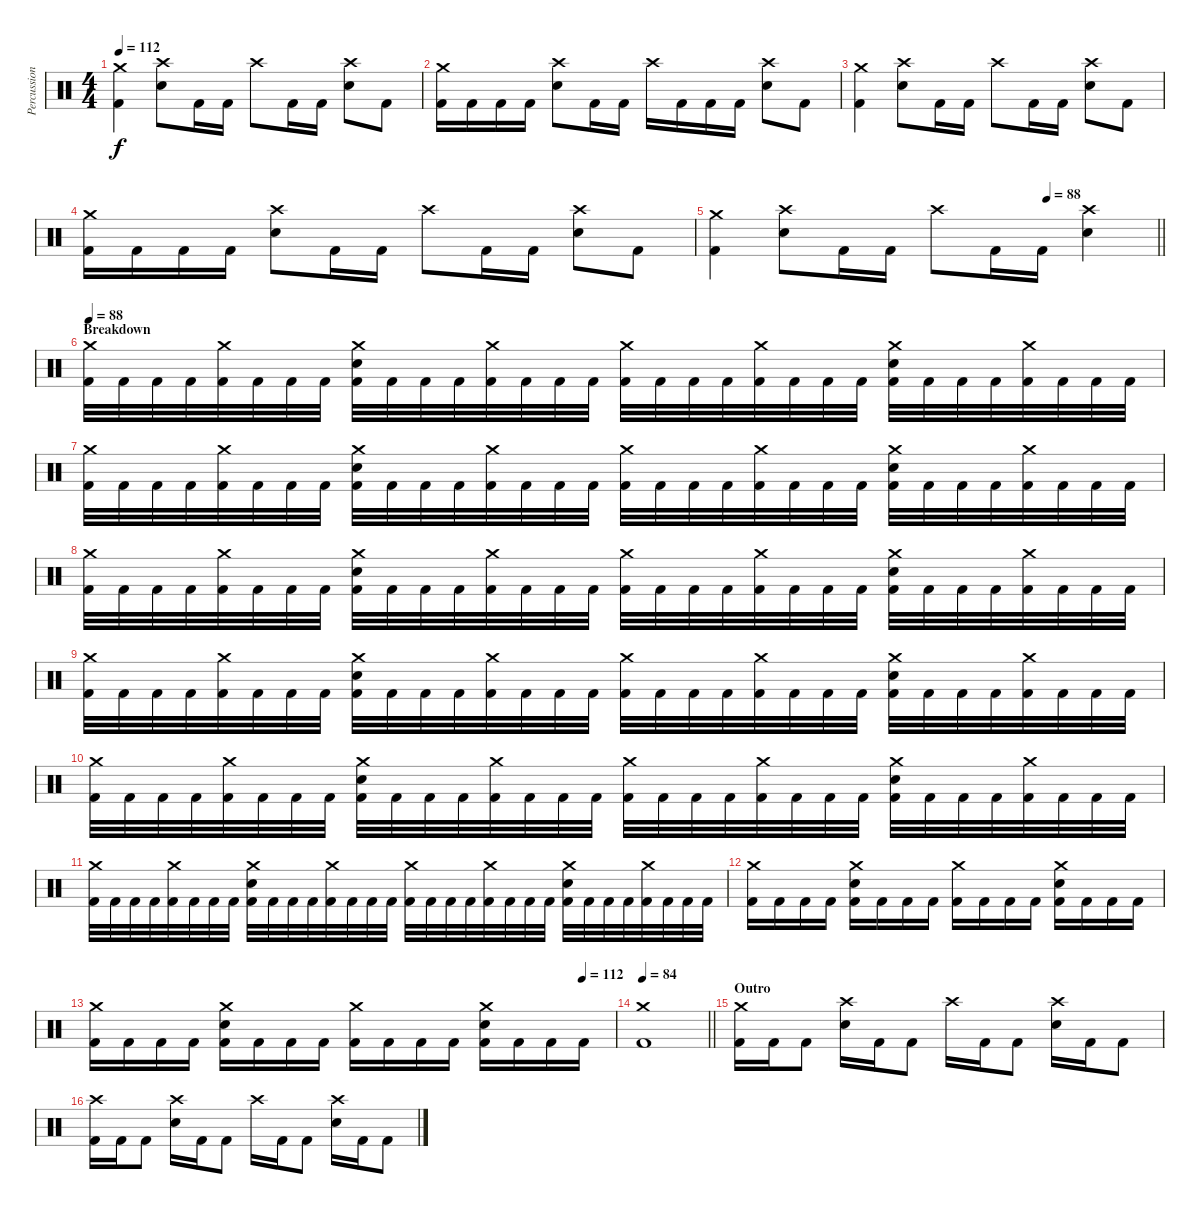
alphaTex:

\track ("Percussion" "Percussion") {instrument percussion}
\staff {score}
\articulation defaults
\ts (4 4)
\tempo 112
\clef neutral
\ks c
("Crash medium (hit)" "Kick (hit) 2").4{dy f} ("Crash high (hit)" "Electric Snare (hit)").8 "Kick (hit) 2".16 "Kick (hit) 2".16 "Crash high (hit)".8 "Kick (hit) 2".16 "Kick (hit) 2".16 ("Crash high (hit)" "Electric Snare (hit)").8 "Kick (hit) 2".8 |
("Crash medium (hit)" "Kick (hit) 2").16 "Kick (hit) 2".16 "Kick (hit) 2".16 "Kick (hit) 2".16 ("Crash high (hit)" "Electric Snare (hit)").8 "Kick (hit) 2".16 "Kick (hit) 2".16 "Crash high (hit)".16 "Kick (hit) 2".16 "Kick (hit) 2".16 "Kick (hit) 2".16 ("Crash high (hit)" "Electric Snare (hit)").8 "Kick (hit) 2".8 |
("Crash medium (hit)" "Kick (hit) 2").4 ("Crash high (hit)" "Electric Snare (hit)").8 "Kick (hit) 2".16 "Kick (hit) 2".16 "Crash high (hit)".8 "Kick (hit) 2".16 "Kick (hit) 2".16 ("Crash high (hit)" "Electric Snare (hit)").8 "Kick (hit) 2".8 |
("Crash medium (hit)" "Kick (hit) 2").16 "Kick (hit) 2".16 "Kick (hit) 2".16 "Kick (hit) 2".16 ("Crash high (hit)" "Electric Snare (hit)").8 "Kick (hit) 2".16 "Kick (hit) 2".16 "Crash high (hit)".8 "Kick (hit) 2".16 "Kick (hit) 2".16 ("Crash high (hit)" "Electric Snare (hit)").8 "Kick (hit) 2".8 |
\tempo (84 0.75)
\tempo (88 0.75)
\barLineRight lightlight
("Crash medium (hit)" "Kick (hit) 2").4 ("Crash high (hit)" "Electric Snare (hit)").8 "Kick (hit) 2".16 "Kick (hit) 2".16 "Crash high (hit)".8 "Kick (hit) 2".16 "Kick (hit) 2".16 ("Crash high (hit)" "Electric Snare (hit)").4 |
\section ("" "Breakdown")
\tempo 88
("Crash medium (hit)" "Kick (hit) 2").32 "Kick (hit) 2".32 "Kick (hit) 2".32 "Kick (hit) 2".32 ("Crash medium (hit)" "Kick (hit) 2").32 "Kick (hit) 2".32 "Kick (hit) 2".32 "Kick (hit) 2".32 ("Crash medium (hit)" "Electric Snare (hit)" "Kick (hit) 2").32 "Kick (hit) 2".32 "Kick (hit) 2".32 "Kick (hit) 2".32 ("Crash medium (hit)" "Kick (hit) 2").32 "Kick (hit) 2".32 "Kick (hit) 2".32 "Kick (hit) 2".32 ("Crash medium (hit)" "Kick (hit) 2").32 "Kick (hit) 2".32 "Kick (hit) 2".32 "Kick (hit) 2".32 ("Crash medium (hit)" "Kick (hit) 2").32 "Kick (hit) 2".32 "Kick (hit) 2".32 "Kick (hit) 2".32 ("Crash medium (hit)" "Electric Snare (hit)" "Kick (hit) 2").32 "Kick (hit) 2".32 "Kick (hit) 2".32 "Kick (hit) 2".32 ("Crash medium (hit)" "Kick (hit) 2").32 "Kick (hit) 2".32 "Kick (hit) 2".32 "Kick (hit) 2".32 |
("Crash medium (hit)" "Kick (hit) 2").32 "Kick (hit) 2".32 "Kick (hit) 2".32 "Kick (hit) 2".32 ("Crash medium (hit)" "Kick (hit) 2").32 "Kick (hit) 2".32 "Kick (hit) 2".32 "Kick (hit) 2".32 ("Crash medium (hit)" "Electric Snare (hit)" "Kick (hit) 2").32 "Kick (hit) 2".32 "Kick (hit) 2".32 "Kick (hit) 2".32 ("Crash medium (hit)" "Kick (hit) 2").32 "Kick (hit) 2".32 "Kick (hit) 2".32 "Kick (hit) 2".32 ("Crash medium (hit)" "Kick (hit) 2").32 "Kick (hit) 2".32 "Kick (hit) 2".32 "Kick (hit) 2".32 ("Crash medium (hit)" "Kick (hit) 2").32 "Kick (hit) 2".32 "Kick (hit) 2".32 "Kick (hit) 2".32 ("Crash medium (hit)" "Electric Snare (hit)" "Kick (hit) 2").32 "Kick (hit) 2".32 "Kick (hit) 2".32 "Kick (hit) 2".32 ("Crash medium (hit)" "Kick (hit) 2").32 "Kick (hit) 2".32 "Kick (hit) 2".32 "Kick (hit) 2".32 |
("Crash medium (hit)" "Kick (hit) 2").32 "Kick (hit) 2".32 "Kick (hit) 2".32 "Kick (hit) 2".32 ("Crash medium (hit)" "Kick (hit) 2").32 "Kick (hit) 2".32 "Kick (hit) 2".32 "Kick (hit) 2".32 ("Crash medium (hit)" "Electric Snare (hit)" "Kick (hit) 2").32 "Kick (hit) 2".32 "Kick (hit) 2".32 "Kick (hit) 2".32 ("Crash medium (hit)" "Kick (hit) 2").32 "Kick (hit) 2".32 "Kick (hit) 2".32 "Kick (hit) 2".32 ("Crash medium (hit)" "Kick (hit) 2").32 "Kick (hit) 2".32 "Kick (hit) 2".32 "Kick (hit) 2".32 ("Crash medium (hit)" "Kick (hit) 2").32 "Kick (hit) 2".32 "Kick (hit) 2".32 "Kick (hit) 2".32 ("Crash medium (hit)" "Electric Snare (hit)" "Kick (hit) 2").32 "Kick (hit) 2".32 "Kick (hit) 2".32 "Kick (hit) 2".32 ("Crash medium (hit)" "Kick (hit) 2").32 "Kick (hit) 2".32 "Kick (hit) 2".32 "Kick (hit) 2".32 |
("Crash medium (hit)" "Kick (hit) 2").32 "Kick (hit) 2".32 "Kick (hit) 2".32 "Kick (hit) 2".32 ("Crash medium (hit)" "Kick (hit) 2").32 "Kick (hit) 2".32 "Kick (hit) 2".32 "Kick (hit) 2".32 ("Crash medium (hit)" "Electric Snare (hit)" "Kick (hit) 2").32 "Kick (hit) 2".32 "Kick (hit) 2".32 "Kick (hit) 2".32 ("Crash medium (hit)" "Kick (hit) 2").32 "Kick (hit) 2".32 "Kick (hit) 2".32 "Kick (hit) 2".32 ("Crash medium (hit)" "Kick (hit) 2").32 "Kick (hit) 2".32 "Kick (hit) 2".32 "Kick (hit) 2".32 ("Crash medium (hit)" "Kick (hit) 2").32 "Kick (hit) 2".32 "Kick (hit) 2".32 "Kick (hit) 2".32 ("Crash medium (hit)" "Electric Snare (hit)" "Kick (hit) 2").32 "Kick (hit) 2".32 "Kick (hit) 2".32 "Kick (hit) 2".32 ("Crash medium (hit)" "Kick (hit) 2").32 "Kick (hit) 2".32 "Kick (hit) 2".32 "Kick (hit) 2".32 |
("Crash medium (hit)" "Kick (hit) 2").32 "Kick (hit) 2".32 "Kick (hit) 2".32 "Kick (hit) 2".32 ("Crash medium (hit)" "Kick (hit) 2").32 "Kick (hit) 2".32 "Kick (hit) 2".32 "Kick (hit) 2".32 ("Crash medium (hit)" "Electric Snare (hit)" "Kick (hit) 2").32 "Kick (hit) 2".32 "Kick (hit) 2".32 "Kick (hit) 2".32 ("Crash medium (hit)" "Kick (hit) 2").32 "Kick (hit) 2".32 "Kick (hit) 2".32 "Kick (hit) 2".32 ("Crash medium (hit)" "Kick (hit) 2").32 "Kick (hit) 2".32 "Kick (hit) 2".32 "Kick (hit) 2".32 ("Crash medium (hit)" "Kick (hit) 2").32 "Kick (hit) 2".32 "Kick (hit) 2".32 "Kick (hit) 2".32 ("Crash medium (hit)" "Electric Snare (hit)" "Kick (hit) 2").32 "Kick (hit) 2".32 "Kick (hit) 2".32 "Kick (hit) 2".32 ("Crash medium (hit)" "Kick (hit) 2").32 "Kick (hit) 2".32 "Kick (hit) 2".32 "Kick (hit) 2".32 |
("Crash medium (hit)" "Kick (hit) 2").32 "Kick (hit) 2".32 "Kick (hit) 2".32 "Kick (hit) 2".32 ("Crash medium (hit)" "Kick (hit) 2").32 "Kick (hit) 2".32 "Kick (hit) 2".32 "Kick (hit) 2".32 ("Crash medium (hit)" "Electric Snare (hit)" "Kick (hit) 2").32 "Kick (hit) 2".32 "Kick (hit) 2".32 "Kick (hit) 2".32 ("Crash medium (hit)" "Kick (hit) 2").32 "Kick (hit) 2".32 "Kick (hit) 2".32 "Kick (hit) 2".32 ("Crash medium (hit)" "Kick (hit) 2").32 "Kick (hit) 2".32 "Kick (hit) 2".32 "Kick (hit) 2".32 ("Crash medium (hit)" "Kick (hit) 2").32 "Kick (hit) 2".32 "Kick (hit) 2".32 "Kick (hit) 2".32 ("Crash medium (hit)" "Electric Snare (hit)" "Kick (hit) 2").32 "Kick (hit) 2".32 "Kick (hit) 2".32 "Kick (hit) 2".32 ("Crash medium (hit)" "Kick (hit) 2").32 "Kick (hit) 2".32 "Kick (hit) 2".32 "Kick (hit) 2".32 |
("Crash medium (hit)" "Kick (hit) 2").16 "Kick (hit) 2".16 "Kick (hit) 2".16 "Kick (hit) 2".16 ("Crash medium (hit)" "Electric Snare (hit)" "Kick (hit) 2").16 "Kick (hit) 2".16 "Kick (hit) 2".16 "Kick (hit) 2".16 ("Crash medium (hit)" "Kick (hit) 2").16 "Kick (hit) 2".16 "Kick (hit) 2".16 "Kick (hit) 2".16 ("Crash medium (hit)" "Electric Snare (hit)" "Kick (hit) 2").16 "Kick (hit) 2".16 "Kick (hit) 2".16 "Kick (hit) 2".16 |
\tempo (112 0.9375)
("Crash medium (hit)" "Kick (hit) 2").16 "Kick (hit) 2".16 "Kick (hit) 2".16 "Kick (hit) 2".16 ("Crash medium (hit)" "Electric Snare (hit)" "Kick (hit) 2").16 "Kick (hit) 2".16 "Kick (hit) 2".16 "Kick (hit) 2".16 ("Crash medium (hit)" "Kick (hit) 2").16 "Kick (hit) 2".16 "Kick (hit) 2".16 "Kick (hit) 2".16 ("Crash medium (hit)" "Electric Snare (hit)" "Kick (hit) 2").16 "Kick (hit) 2".16 "Kick (hit) 2".16 "Kick (hit) 2".16 |
\tempo 84
\barLineRight lightlight
("Crash medium (hit)" "Kick (hit) 2").1 |
\section ("" "Outro")
("Crash medium (hit)" "Kick (hit) 2").16 "Kick (hit) 2".16 "Kick (hit) 2".8 ("Crash high (hit)" "Electric Snare (hit)").16 "Kick (hit) 2".16 "Kick (hit) 2".8 "Crash high (hit)".16 "Kick (hit) 2".16 "Kick (hit) 2".8 ("Crash high (hit)" "Electric Snare (hit)").16 "Kick (hit) 2".16 "Kick (hit) 2".8 |
("Crash high (hit)" "Kick (hit) 2").16 "Kick (hit) 2".16 "Kick (hit) 2".8 ("Crash high (hit)" "Electric Snare (hit)").16 "Kick (hit) 2".16 "Kick (hit) 2".8 "Crash high (hit)".16 "Kick (hit) 2".16 "Kick (hit) 2".8 ("Crash high (hit)" "Electric Snare (hit)").16 "Kick (hit) 2".16 "Kick (hit) 2".8
